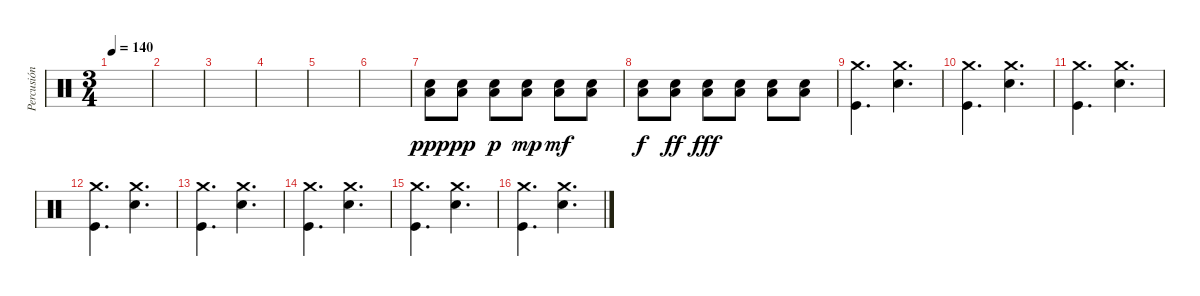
\track ("Percusión" "Percusión") {instrument percussion}
\staff {score}
\articulation defaults
\ts (3 4)
\tempo 140
\clef neutral
\ks c
|
|
|
|
|
|
("Low Tom (hit)" "Snare (hit) 2").8{dy ppp} ("Low Tom (hit)" "Snare (hit) 2").8{dy pp} ("Low Tom (hit)" "Snare (hit) 2").8{dy p} ("Low Tom (hit)" "Snare (hit) 2").8{dy mp} ("Low Tom (hit)" "Snare (hit) 2").8{dy mf} ("Low Tom (hit)" "Snare (hit) 2").8 |
("Low Tom (hit)" "Snare (hit) 2").8{dy f} ("Low Tom (hit)" "Snare (hit) 2").8{dy ff} ("Low Tom (hit)" "Snare (hit) 2").8{dy fff} ("Low Tom (hit)" "Snare (hit) 2").8 ("Low Tom (hit)" "Snare (hit) 2").8 ("Low Tom (hit)" "Snare (hit) 2").8 |
("Crash medium (hit)" "Kick (hit)").4{d} ("Crash medium (hit)" "Snare (hit) 2").4{d} |
("Crash medium (hit)" "Kick (hit)").4{d} ("Crash medium (hit)" "Snare (hit) 2").4{d} |
("Crash medium (hit)" "Kick (hit)").4{d} ("Crash medium (hit)" "Snare (hit) 2").4{d} |
("Crash medium (hit)" "Kick (hit)").4{d} ("Crash medium (hit)" "Snare (hit) 2").4{d} |
("Crash medium (hit)" "Kick (hit)").4{d} ("Crash medium (hit)" "Snare (hit) 2").4{d} |
("Crash medium (hit)" "Kick (hit)").4{d} ("Crash medium (hit)" "Snare (hit) 2").4{d} |
("Crash medium (hit)" "Kick (hit)").4{d} ("Crash medium (hit)" "Snare (hit) 2").4{d} |
("Crash medium (hit)" "Kick (hit)").4{d} ("Crash medium (hit)" "Snare (hit) 2").4{d}
